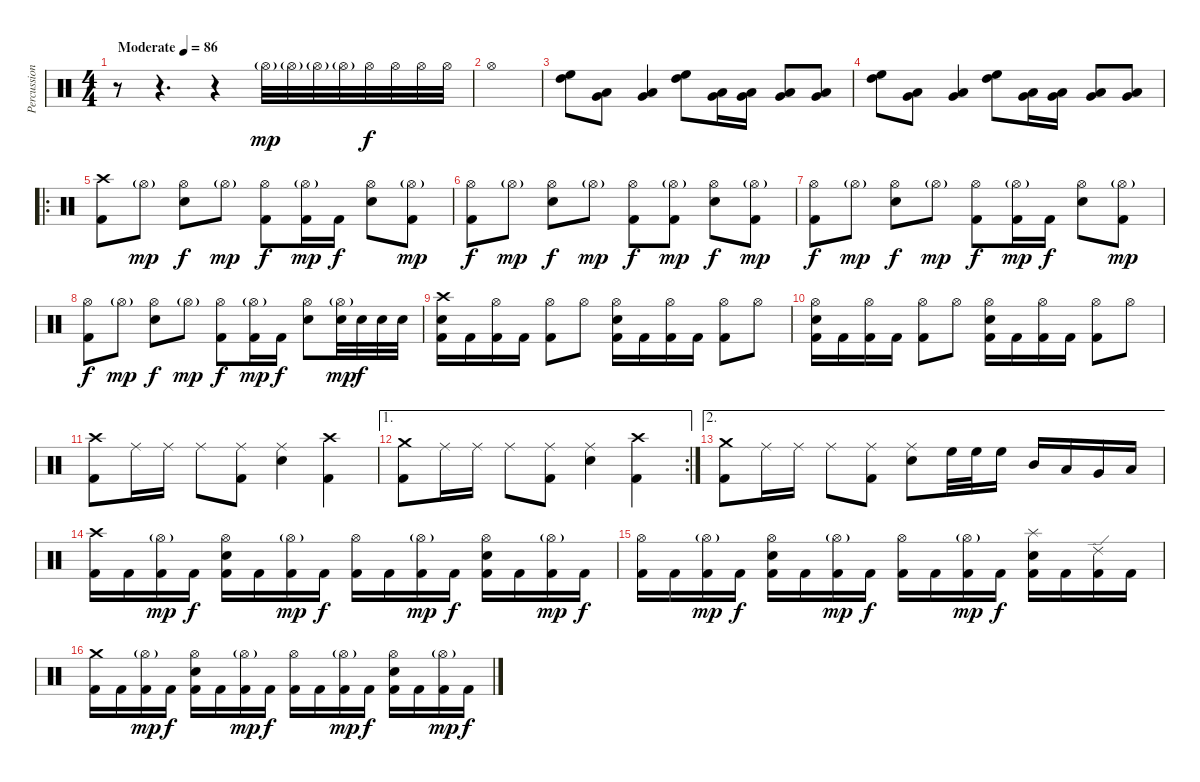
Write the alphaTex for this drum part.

\track ("Percussion" "Percussion") {instrument percussion}
\staff {score}
\articulation defaults
\ts (4 4)
\tempo (86 "Moderate")
\clef neutral
\ks c
r.8{dy mp} r.4{d} r.4 "Hi-Hat (open)"{g}.32 "Hi-Hat (open)"{g}.32 "Hi-Hat (open)"{g}.32 "Hi-Hat (open)"{g}.32 "Hi-Hat (open)".32{dy f} "Hi-Hat (open)".32 "Hi-Hat (open)".32 "Hi-Hat (open)".32 |
"Hi-Hat (open)".1 |
("High Floor Tom (hit)" "High Tom (hit)").8 ("Low Tom (hit)" "Very Low Tom (hit)").8 ("Low Tom (hit)" "Very Low Tom (hit)").4 ("High Floor Tom (hit)" "High Tom (hit)").8 ("Low Tom (hit)" "Very Low Tom (hit)").16 ("Low Tom (hit)" "Very Low Tom (hit)").16 ("Very Low Tom (hit)" "Low Floor Tom (hit)").8 ("Very Low Tom (hit)" "Low Floor Tom (hit)").8 |
("High Floor Tom (hit)" "High Tom (hit)").8 ("Low Tom (hit)" "Very Low Tom (hit)").8 ("Low Tom (hit)" "Very Low Tom (hit)").4 ("High Floor Tom (hit)" "High Tom (hit)").8 ("Low Tom (hit)" "Very Low Tom (hit)").16 ("Low Tom (hit)" "Very Low Tom (hit)").16 ("Very Low Tom (hit)" "Low Floor Tom (hit)").8 ("Very Low Tom (hit)" "Low Floor Tom (hit)").8 |
\ro
("Crash high (hit)" "Kick (hit) 2").8 "Hi-Hat (open)"{g}.8{dy mp} ("Hi-Hat (open)" "Snare (hit) 2").8{dy f} "Hi-Hat (open)"{g}.8{dy mp} ("Hi-Hat (open)" "Kick (hit) 2").8{dy f} ("Hi-Hat (open)"{g} "Kick (hit) 2").16{dy mp} "Kick (hit) 2".16{dy f} ("Hi-Hat (open)" "Snare (hit) 2").8 ("Hi-Hat (open)"{g} "Kick (hit) 2").8{dy mp} |
("Hi-Hat (open)" "Kick (hit) 2").8{dy f} "Hi-Hat (open)"{g}.8{dy mp} ("Hi-Hat (open)" "Snare (hit) 2").8{dy f} "Hi-Hat (open)"{g}.8{dy mp} ("Hi-Hat (open)" "Kick (hit) 2").8{dy f} ("Hi-Hat (open)"{g} "Kick (hit) 2").8{dy mp} ("Hi-Hat (open)" "Snare (hit) 2").8{dy f} ("Hi-Hat (open)"{g} "Kick (hit) 2").8{dy mp} |
("Hi-Hat (open)" "Kick (hit) 2").8{dy f} "Hi-Hat (open)"{g}.8{dy mp} ("Hi-Hat (open)" "Snare (hit) 2").8{dy f} "Hi-Hat (open)"{g}.8{dy mp} ("Hi-Hat (open)" "Kick (hit) 2").8{dy f} ("Hi-Hat (open)"{g} "Kick (hit) 2").16{dy mp} "Kick (hit) 2".16{dy f} ("Hi-Hat (open)" "Snare (hit) 2").8 ("Hi-Hat (open)"{g} "Kick (hit) 2").8{dy mp} |
("Hi-Hat (open)" "Kick (hit) 2").8{dy f} "Hi-Hat (open)"{g}.8{dy mp} ("Hi-Hat (open)" "Snare (hit) 2").8{dy f} "Hi-Hat (open)"{g}.8{dy mp} ("Hi-Hat (open)" "Kick (hit) 2").8{dy f} ("Hi-Hat (open)"{g} "Kick (hit) 2").16{dy mp} "Kick (hit) 2".16{dy f} ("Hi-Hat (open)" "Snare (hit) 2").8 ("Hi-Hat (open)"{g} "Snare (hit) 2").32{dy mp} "Snare (hit) 2".32{dy f} "Snare (hit) 2".32 "Snare (hit) 2".32 |
("Crash high (hit)" "Snare (hit) 2" "Kick (hit) 2").16 "Kick (hit) 2".16 ("Hi-Hat (open)" "Kick (hit) 2").16 "Kick (hit) 2".16 ("Hi-Hat (open)" "Kick (hit) 2").8 "Hi-Hat (open)".8 ("Hi-Hat (open)" "Snare (hit) 2" "Kick (hit) 2").16 "Kick (hit) 2".16 ("Hi-Hat (open)" "Kick (hit) 2").16 "Kick (hit) 2".16 ("Hi-Hat (open)" "Kick (hit) 2").8 "Hi-Hat (open)".8 |
("Hi-Hat (open)" "Snare (hit) 2" "Kick (hit) 2").16 "Kick (hit) 2".16 ("Hi-Hat (open)" "Kick (hit) 2").16 "Kick (hit) 2".16 ("Hi-Hat (open)" "Kick (hit) 2").8 "Hi-Hat (open)".8 ("Hi-Hat (open)" "Snare (hit) 2" "Kick (hit) 2").16 "Kick (hit) 2".16 ("Hi-Hat (open)" "Kick (hit) 2").16 "Kick (hit) 2".16 ("Hi-Hat (open)" "Kick (hit) 2").8 "Hi-Hat (open)".8 |
("Crash high (hit)" "Kick (hit) 2").8 "Ride (middle)".16 "Ride (middle)".16 "Ride (middle)".8 ("Ride (middle)" "Kick (hit) 2").8 ("Ride (middle)" "Snare (hit) 2").4 ("Crash high (hit)" "Kick (hit) 2").4 |
\ae 1
\rc 2
("Crash medium (hit)" "Kick (hit) 2").8 "Ride (middle)".16 "Ride (middle)".16 "Ride (middle)".8 ("Ride (middle)" "Kick (hit) 2").8 ("Ride (middle)" "Snare (hit) 2").4 ("Crash high (hit)" "Kick (hit) 2").4 |
\ae 2
("Crash medium (hit)" "Kick (hit) 2").8 "Ride (middle)".16 "Ride (middle)".16 "Ride (middle)".8 ("Ride (middle)" "Kick (hit) 2").8 ("Ride (middle)" "Snare (hit) 2").8 "High Floor Tom (hit)".32 "High Floor Tom (hit)".32 "High Floor Tom (hit)".16 "Mid Tom (hit)".16 "Low Tom (hit)".16 "Very Low Tom (hit)".16 "Low Floor Tom (hit)".16 |
("Crash high (hit)" "Kick (hit) 2").16 "Kick (hit) 2".16 ("Hi-Hat (open)"{g} "Kick (hit) 2").16{dy mp} "Kick (hit) 2".16{dy f} ("Hi-Hat (open)" "Snare (hit) 2" "Kick (hit) 2").16 "Kick (hit) 2".16 ("Hi-Hat (open)"{g} "Kick (hit) 2").16{dy mp} "Kick (hit) 2".16{dy f} ("Hi-Hat (open)" "Kick (hit) 2").16 "Kick (hit) 2".16 ("Hi-Hat (open)"{g} "Kick (hit) 2").16{dy mp} "Kick (hit) 2".16{dy f} ("Hi-Hat (open)" "Snare (hit) 2" "Kick (hit) 2").16 "Kick (hit) 2".16 ("Hi-Hat (open)"{g} "Kick (hit) 2").16{dy mp} "Kick (hit) 2".16{dy f} |
("Hi-Hat (open)" "Kick (hit) 2").16 "Kick (hit) 2".16 ("Hi-Hat (open)"{g} "Kick (hit) 2").16{dy mp} "Kick (hit) 2".16{dy f} ("Hi-Hat (open)" "Snare (hit) 2" "Kick (hit) 2").16 "Kick (hit) 2".16 ("Hi-Hat (open)"{g} "Kick (hit) 2").16{dy mp} "Kick (hit) 2".16{dy f} ("Hi-Hat (open)" "Kick (hit) 2").16 "Kick (hit) 2".16 ("Hi-Hat (open)"{g} "Kick (hit) 2").16{dy mp} "Kick (hit) 2".16{dy f} ("Splash (hit)" "Snare (hit) 2" "Kick (hit) 2").16 "Kick (hit) 2".16 ("Ride (edge) 2" "Kick (hit) 2").16 "Kick (hit) 2".16 |
("Crash medium (hit)" "Kick (hit) 2").16 "Kick (hit) 2".16 ("Hi-Hat (open)"{g} "Kick (hit) 2").16{dy mp} "Kick (hit) 2".16{dy f} ("Hi-Hat (open)" "Snare (hit) 2" "Kick (hit) 2").16 "Kick (hit) 2".16 ("Hi-Hat (open)"{g} "Kick (hit) 2").16{dy mp} "Kick (hit) 2".16{dy f} ("Hi-Hat (open)" "Kick (hit) 2").16 "Kick (hit) 2".16 ("Hi-Hat (open)"{g} "Kick (hit) 2").16{dy mp} "Kick (hit) 2".16{dy f} ("Hi-Hat (open)" "Snare (hit) 2" "Kick (hit) 2").16 "Kick (hit) 2".16 ("Hi-Hat (open)"{g} "Kick (hit) 2").16{dy mp} "Kick (hit) 2".16{dy f}
